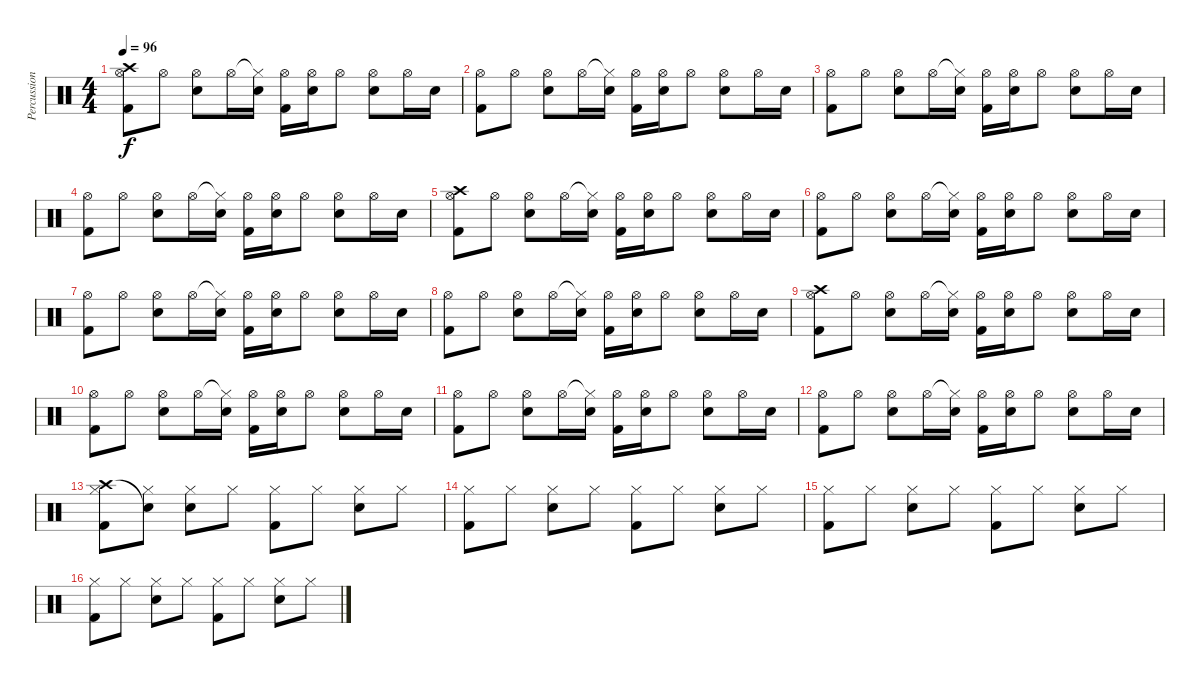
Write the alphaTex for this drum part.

\track ("Percussion" "Percussion") {instrument percussion}
\staff {score}
\articulation defaults
\ts (4 4)
\tempo 96
\clef neutral
\ks c
("Crash high (hit)" "Hi-Hat (open)" "Kick (hit) 2").8{dy f} "Hi-Hat (open)".8 ("Hi-Hat (open)" "Snare (hit) 2").8 "Hi-Hat (open)".16 ("Hi-Hat (closed)"{t} "Snare (hit) 2").16 ("Hi-Hat (open)" "Kick (hit) 2").16 ("Hi-Hat (open)" "Snare (hit) 2").16 "Hi-Hat (open)".8 ("Hi-Hat (open)" "Snare (hit) 2").8 "Hi-Hat (open)".16 "Snare (hit) 2".16 |
("Hi-Hat (open)" "Kick (hit) 2").8 "Hi-Hat (open)".8 ("Hi-Hat (open)" "Snare (hit) 2").8 "Hi-Hat (open)".16 ("Hi-Hat (closed)"{t} "Snare (hit) 2").16 ("Hi-Hat (open)" "Kick (hit) 2").16 ("Hi-Hat (open)" "Snare (hit) 2").16 "Hi-Hat (open)".8 ("Hi-Hat (open)" "Snare (hit) 2").8 "Hi-Hat (open)".16 "Snare (hit) 2".16 |
("Hi-Hat (open)" "Kick (hit) 2").8 "Hi-Hat (open)".8 ("Hi-Hat (open)" "Snare (hit) 2").8 "Hi-Hat (open)".16 ("Hi-Hat (closed)"{t} "Snare (hit) 2").16 ("Hi-Hat (open)" "Kick (hit) 2").16 ("Hi-Hat (open)" "Snare (hit) 2").16 "Hi-Hat (open)".8 ("Hi-Hat (open)" "Snare (hit) 2").8 "Hi-Hat (open)".16 "Snare (hit) 2".16 |
("Hi-Hat (open)" "Kick (hit) 2").8 "Hi-Hat (open)".8 ("Hi-Hat (open)" "Snare (hit) 2").8 "Hi-Hat (open)".16 ("Hi-Hat (closed)"{t} "Snare (hit) 2").16 ("Hi-Hat (open)" "Kick (hit) 2").16 ("Hi-Hat (open)" "Snare (hit) 2").16 "Hi-Hat (open)".8 ("Hi-Hat (open)" "Snare (hit) 2").8 "Hi-Hat (open)".16 "Snare (hit) 2".16 |
("Crash high (hit)" "Hi-Hat (open)" "Kick (hit) 2").8 "Hi-Hat (open)".8 ("Hi-Hat (open)" "Snare (hit) 2").8 "Hi-Hat (open)".16 ("Hi-Hat (closed)"{t} "Snare (hit) 2").16 ("Hi-Hat (open)" "Kick (hit) 2").16 ("Hi-Hat (open)" "Snare (hit) 2").16 "Hi-Hat (open)".8 ("Hi-Hat (open)" "Snare (hit) 2").8 "Hi-Hat (open)".16 "Snare (hit) 2".16 |
("Hi-Hat (open)" "Kick (hit) 2").8 "Hi-Hat (open)".8 ("Hi-Hat (open)" "Snare (hit) 2").8 "Hi-Hat (open)".16 ("Hi-Hat (closed)"{t} "Snare (hit) 2").16 ("Hi-Hat (open)" "Kick (hit) 2").16 ("Hi-Hat (open)" "Snare (hit) 2").16 "Hi-Hat (open)".8 ("Hi-Hat (open)" "Snare (hit) 2").8 "Hi-Hat (open)".16 "Snare (hit) 2".16 |
("Hi-Hat (open)" "Kick (hit) 2").8 "Hi-Hat (open)".8 ("Hi-Hat (open)" "Snare (hit) 2").8 "Hi-Hat (open)".16 ("Hi-Hat (closed)"{t} "Snare (hit) 2").16 ("Hi-Hat (open)" "Kick (hit) 2").16 ("Hi-Hat (open)" "Snare (hit) 2").16 "Hi-Hat (open)".8 ("Hi-Hat (open)" "Snare (hit) 2").8 "Hi-Hat (open)".16 "Snare (hit) 2".16 |
("Hi-Hat (open)" "Kick (hit) 2").8 "Hi-Hat (open)".8 ("Hi-Hat (open)" "Snare (hit) 2").8 "Hi-Hat (open)".16 ("Hi-Hat (closed)"{t} "Snare (hit) 2").16 ("Hi-Hat (open)" "Kick (hit) 2").16 ("Hi-Hat (open)" "Snare (hit) 2").16 "Hi-Hat (open)".8 ("Hi-Hat (open)" "Snare (hit) 2").8 "Hi-Hat (open)".16 "Snare (hit) 2".16 |
("Crash high (hit)" "Hi-Hat (open)" "Kick (hit) 2").8 "Hi-Hat (open)".8 ("Hi-Hat (open)" "Snare (hit) 2").8 "Hi-Hat (open)".16 ("Hi-Hat (closed)"{t} "Snare (hit) 2").16 ("Hi-Hat (open)" "Kick (hit) 2").16 ("Hi-Hat (open)" "Snare (hit) 2").16 "Hi-Hat (open)".8 ("Hi-Hat (open)" "Snare (hit) 2").8 "Hi-Hat (open)".16 "Snare (hit) 2".16 |
("Hi-Hat (open)" "Kick (hit) 2").8 "Hi-Hat (open)".8 ("Hi-Hat (open)" "Snare (hit) 2").8 "Hi-Hat (open)".16 ("Hi-Hat (closed)"{t} "Snare (hit) 2").16 ("Hi-Hat (open)" "Kick (hit) 2").16 ("Hi-Hat (open)" "Snare (hit) 2").16 "Hi-Hat (open)".8 ("Hi-Hat (open)" "Snare (hit) 2").8 "Hi-Hat (open)".16 "Snare (hit) 2".16 |
("Hi-Hat (open)" "Kick (hit) 2").8 "Hi-Hat (open)".8 ("Hi-Hat (open)" "Snare (hit) 2").8 "Hi-Hat (open)".16 ("Hi-Hat (closed)"{t} "Snare (hit) 2").16 ("Hi-Hat (open)" "Kick (hit) 2").16 ("Hi-Hat (open)" "Snare (hit) 2").16 "Hi-Hat (open)".8 ("Hi-Hat (open)" "Snare (hit) 2").8 "Hi-Hat (open)".16 "Snare (hit) 2".16 |
("Hi-Hat (open)" "Kick (hit) 2").8 "Hi-Hat (open)".8 ("Hi-Hat (open)" "Snare (hit) 2").8 "Hi-Hat (open)".16 ("Hi-Hat (closed)"{t} "Snare (hit) 2").16 ("Hi-Hat (open)" "Kick (hit) 2").16 ("Hi-Hat (open)" "Snare (hit) 2").16 "Hi-Hat (open)".8 ("Hi-Hat (open)" "Snare (hit) 2").8 "Hi-Hat (open)".16 "Snare (hit) 2".16 |
("Crash high (hit)" "Hi-Hat (closed)" "Kick (hit) 2").8 ("Snare (hit)"{t} "Hi-Hat (closed)").8 ("Hi-Hat (closed)" "Snare (hit) 2").8 "Hi-Hat (closed)".8 ("Hi-Hat (closed)" "Kick (hit) 2").8 "Hi-Hat (closed)".8 ("Hi-Hat (closed)" "Snare (hit) 2").8 "Hi-Hat (closed)".8 |
("Hi-Hat (closed)" "Kick (hit) 2").8 "Hi-Hat (closed)".8 ("Hi-Hat (closed)" "Snare (hit) 2").8 "Hi-Hat (closed)".8 ("Hi-Hat (closed)" "Kick (hit) 2").8 "Hi-Hat (closed)".8 ("Hi-Hat (closed)" "Snare (hit) 2").8 "Hi-Hat (closed)".8 |
("Hi-Hat (closed)" "Kick (hit) 2").8 "Hi-Hat (closed)".8 ("Hi-Hat (closed)" "Snare (hit) 2").8 "Hi-Hat (closed)".8 ("Hi-Hat (closed)" "Kick (hit) 2").8 "Hi-Hat (closed)".8 ("Hi-Hat (closed)" "Snare (hit) 2").8 "Hi-Hat (closed)".8 |
("Hi-Hat (closed)" "Kick (hit) 2").8 "Hi-Hat (closed)".8 ("Hi-Hat (closed)" "Snare (hit) 2").8 "Hi-Hat (closed)".8 ("Hi-Hat (closed)" "Kick (hit) 2").8 "Hi-Hat (closed)".8 ("Hi-Hat (closed)" "Snare (hit) 2").8 "Hi-Hat (closed)".8
